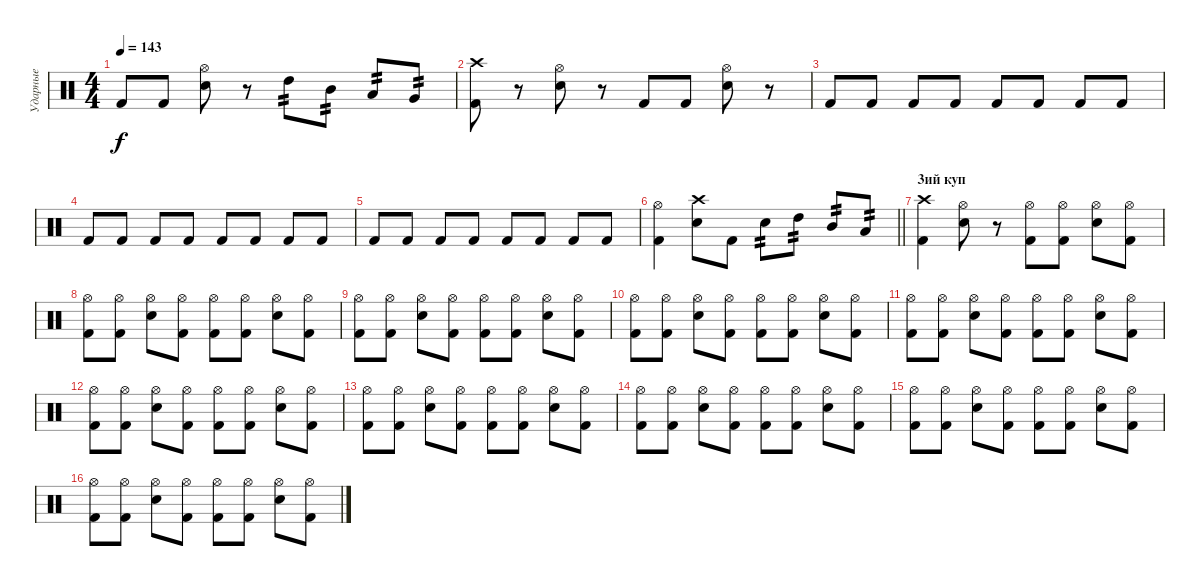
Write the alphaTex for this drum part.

\track ("Ударные" "Ударные") {instrument percussion}
\staff {score}
\articulation defaults
\ts (4 4)
\tempo 143
\clef neutral
\ks c "Kick (hit) 2".8{dy f} "Kick (hit) 2".8
("Hi-Hat (open)" "Electric Snare (hit)").8 r.8 "High Tom (hit)".8{tp 2} "Mid Tom (hit)".8{tp 2} "Low Tom (hit)".8{tp 2} "Very Low Tom (hit)".8{tp 2} |
("Crash high (hit)" "Kick (hit) 2").8 r.8 ("Hi-Hat (open)" "Electric Snare (hit)").8 r.8 "Kick (hit) 2".8 "Kick (hit) 2".8 ("Hi-Hat (open)" "Electric Snare (hit)").8 r.8 |
"Kick (hit) 2".8 "Kick (hit) 2".8 "Kick (hit) 2".8 "Kick (hit) 2".8 "Kick (hit) 2".8 "Kick (hit) 2".8 "Kick (hit) 2".8 "Kick (hit) 2".8 |
"Kick (hit) 2".8 "Kick (hit) 2".8 "Kick (hit) 2".8 "Kick (hit) 2".8 "Kick (hit) 2".8 "Kick (hit) 2".8 "Kick (hit) 2".8 "Kick (hit) 2".8 |
"Kick (hit) 2".8 "Kick (hit) 2".8 "Kick (hit) 2".8 "Kick (hit) 2".8 "Kick (hit) 2".8 "Kick (hit) 2".8 "Kick (hit) 2".8 "Kick (hit) 2".8 |
\barLineRight lightlight
("Hi-Hat (open)" "Kick (hit) 2").4 ("Crash high (hit)" "Electric Snare (hit)").8 "Kick (hit) 2".8 "Electric Snare (hit)".8{tp 2} "High Tom (hit)".8{tp 2} "Mid Tom (hit)".8{tp 2} "Low Tom (hit)".8{tp 2} |
\section ("" "3ий куп")
("Crash high (hit)" "Kick (hit) 2").4 ("Hi-Hat (open)" "Electric Snare (hit)").8 r.8 ("Hi-Hat (open)" "Kick (hit) 2").8 ("Hi-Hat (open)" "Kick (hit) 2").8 ("Hi-Hat (open)" "Electric Snare (hit)").8 ("Hi-Hat (open)" "Kick (hit) 2").8 |
("Hi-Hat (open)" "Kick (hit) 2").8 ("Hi-Hat (open)" "Kick (hit) 2").8 ("Hi-Hat (open)" "Electric Snare (hit)").8 ("Hi-Hat (open)" "Kick (hit) 2").8 ("Hi-Hat (open)" "Kick (hit) 2").8 ("Hi-Hat (open)" "Kick (hit) 2").8 ("Hi-Hat (open)" "Electric Snare (hit)").8 ("Hi-Hat (open)" "Kick (hit) 2").8 |
("Hi-Hat (open)" "Kick (hit) 2").8 ("Hi-Hat (open)" "Kick (hit) 2").8 ("Hi-Hat (open)" "Electric Snare (hit)").8 ("Hi-Hat (open)" "Kick (hit) 2").8 ("Hi-Hat (open)" "Kick (hit) 2").8 ("Hi-Hat (open)" "Kick (hit) 2").8 ("Hi-Hat (open)" "Electric Snare (hit)").8 ("Hi-Hat (open)" "Kick (hit) 2").8 |
("Hi-Hat (open)" "Kick (hit) 2").8 ("Hi-Hat (open)" "Kick (hit) 2").8 ("Hi-Hat (open)" "Electric Snare (hit)").8 ("Hi-Hat (open)" "Kick (hit) 2").8 ("Hi-Hat (open)" "Kick (hit) 2").8 ("Hi-Hat (open)" "Kick (hit) 2").8 ("Hi-Hat (open)" "Electric Snare (hit)").8 ("Hi-Hat (open)" "Kick (hit) 2").8 |
("Hi-Hat (open)" "Kick (hit) 2").8 ("Hi-Hat (open)" "Kick (hit) 2").8 ("Hi-Hat (open)" "Electric Snare (hit)").8 ("Hi-Hat (open)" "Kick (hit) 2").8 ("Hi-Hat (open)" "Kick (hit) 2").8 ("Hi-Hat (open)" "Kick (hit) 2").8 ("Hi-Hat (open)" "Electric Snare (hit)").8 ("Hi-Hat (open)" "Kick (hit) 2").8 |
("Hi-Hat (open)" "Kick (hit) 2").8 ("Hi-Hat (open)" "Kick (hit) 2").8 ("Hi-Hat (open)" "Electric Snare (hit)").8 ("Hi-Hat (open)" "Kick (hit) 2").8 ("Hi-Hat (open)" "Kick (hit) 2").8 ("Hi-Hat (open)" "Kick (hit) 2").8 ("Hi-Hat (open)" "Electric Snare (hit)").8 ("Hi-Hat (open)" "Kick (hit) 2").8 |
("Hi-Hat (open)" "Kick (hit) 2").8 ("Hi-Hat (open)" "Kick (hit) 2").8 ("Hi-Hat (open)" "Electric Snare (hit)").8 ("Hi-Hat (open)" "Kick (hit) 2").8 ("Hi-Hat (open)" "Kick (hit) 2").8 ("Hi-Hat (open)" "Kick (hit) 2").8 ("Hi-Hat (open)" "Electric Snare (hit)").8 ("Hi-Hat (open)" "Kick (hit) 2").8 |
("Hi-Hat (open)" "Kick (hit) 2").8 ("Hi-Hat (open)" "Kick (hit) 2").8 ("Hi-Hat (open)" "Electric Snare (hit)").8 ("Hi-Hat (open)" "Kick (hit) 2").8 ("Hi-Hat (open)" "Kick (hit) 2").8 ("Hi-Hat (open)" "Kick (hit) 2").8 ("Hi-Hat (open)" "Electric Snare (hit)").8 ("Hi-Hat (open)" "Kick (hit) 2").8 |
("Hi-Hat (open)" "Kick (hit) 2").8 ("Hi-Hat (open)" "Kick (hit) 2").8 ("Hi-Hat (open)" "Electric Snare (hit)").8 ("Hi-Hat (open)" "Kick (hit) 2").8 ("Hi-Hat (open)" "Kick (hit) 2").8 ("Hi-Hat (open)" "Kick (hit) 2").8 ("Hi-Hat (open)" "Electric Snare (hit)").8 ("Hi-Hat (open)" "Kick (hit) 2").8 |
("Hi-Hat (open)" "Kick (hit) 2").8 ("Hi-Hat (open)" "Kick (hit) 2").8 ("Hi-Hat (open)" "Electric Snare (hit)").8 ("Hi-Hat (open)" "Kick (hit) 2").8 ("Hi-Hat (open)" "Kick (hit) 2").8 ("Hi-Hat (open)" "Kick (hit) 2").8 ("Hi-Hat (open)" "Electric Snare (hit)").8 ("Hi-Hat (open)" "Kick (hit) 2").8
